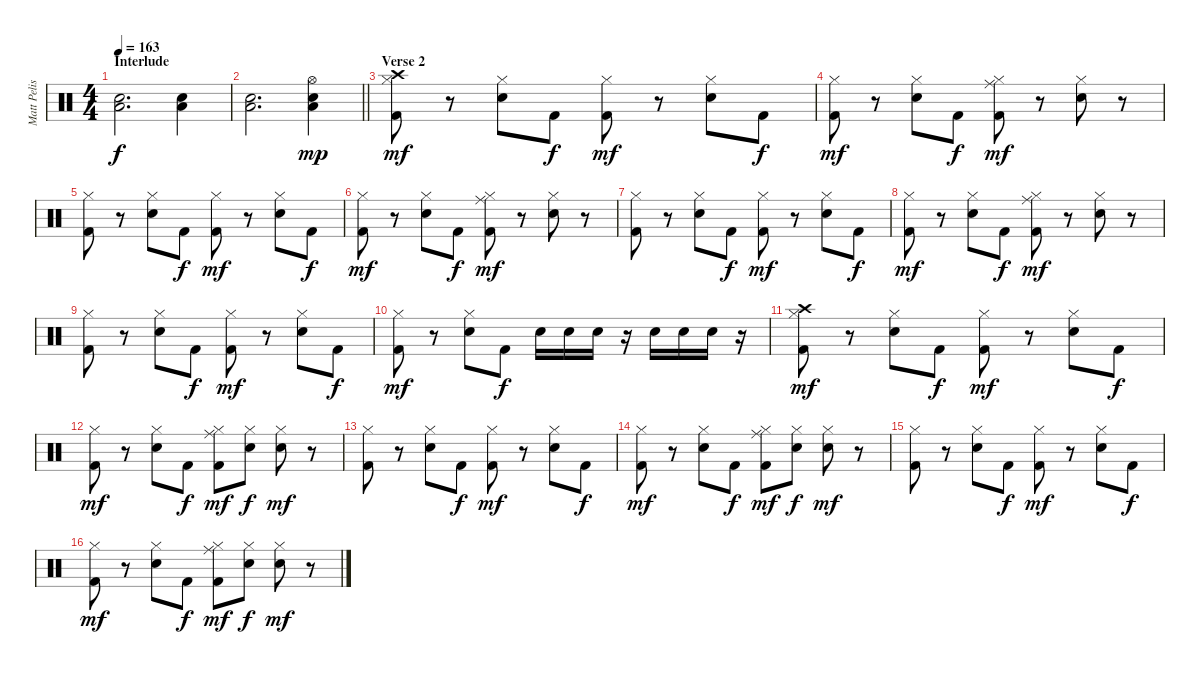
\track ("Matt Pelissier (Drums)" "Matt Pelis") {instrument percussion}
\staff {score}
\articulation defaults
\ts (4 4)
\section ("" "Interlude")
\tempo 163
\clef neutral
\ks c
("Low Tom (hit)" "Electric Snare (hit)").2{d dy f} ("Low Tom (hit)" "Electric Snare (hit)").4 |
\barLineRight lightlight
("Low Tom (hit)" "Electric Snare (hit)").2{d} ("Hi-Hat (open)" "Low Tom (hit)" "Electric Snare (hit)").4{dy mp} |
\section ("" "Verse 2")
("Crash high (hit)" "Hi-Hat (closed)" "Kick (hit) 2").8{dy mf} r.8 ("Hi-Hat (closed)" "Electric Snare (hit)").8 "Kick (hit) 2".8{dy f} ("Hi-Hat (closed)" "Kick (hit) 2").8{dy mf} r.8 ("Hi-Hat (closed)" "Electric Snare (hit)").8 "Kick (hit) 2".8{dy f} |
("Hi-Hat (closed)" "Kick (hit) 2").8{dy mf} r.8 ("Hi-Hat (closed)" "Electric Snare (hit)").8 "Kick (hit) 2".8{dy f} ("Ride (middle)" "Hi-Hat (closed)" "Kick (hit) 2").8{dy mf} r.8 ("Hi-Hat (closed)" "Electric Snare (hit)").8 r.8 |
("Hi-Hat (closed)" "Kick (hit) 2").8 r.8 ("Hi-Hat (closed)" "Electric Snare (hit)").8 "Kick (hit) 2".8{dy f} ("Hi-Hat (closed)" "Kick (hit) 2").8{dy mf} r.8 ("Hi-Hat (closed)" "Electric Snare (hit)").8 "Kick (hit) 2".8{dy f} |
("Hi-Hat (closed)" "Kick (hit) 2").8{dy mf} r.8 ("Hi-Hat (closed)" "Electric Snare (hit)").8 "Kick (hit) 2".8{dy f} ("Ride (middle)" "Hi-Hat (closed)" "Kick (hit) 2").8{dy mf} r.8 ("Hi-Hat (closed)" "Electric Snare (hit)").8 r.8 |
("Hi-Hat (closed)" "Kick (hit) 2").8 r.8 ("Hi-Hat (closed)" "Electric Snare (hit)").8 "Kick (hit) 2".8{dy f} ("Hi-Hat (closed)" "Kick (hit) 2").8{dy mf} r.8 ("Hi-Hat (closed)" "Electric Snare (hit)").8 "Kick (hit) 2".8{dy f} |
("Hi-Hat (closed)" "Kick (hit) 2").8{dy mf} r.8 ("Hi-Hat (closed)" "Electric Snare (hit)").8 "Kick (hit) 2".8{dy f} ("Ride (middle)" "Hi-Hat (closed)" "Kick (hit) 2").8{dy mf} r.8 ("Hi-Hat (closed)" "Electric Snare (hit)").8 r.8 |
("Hi-Hat (closed)" "Kick (hit) 2").8 r.8 ("Hi-Hat (closed)" "Electric Snare (hit)").8 "Kick (hit) 2".8{dy f} ("Hi-Hat (closed)" "Kick (hit) 2").8{dy mf} r.8 ("Hi-Hat (closed)" "Electric Snare (hit)").8 "Kick (hit) 2".8{dy f} |
("Hi-Hat (closed)" "Kick (hit) 2").8{dy mf} r.8 ("Hi-Hat (closed)" "Electric Snare (hit)").8 "Kick (hit) 2".8{dy f} "Electric Snare (hit)".16 "Electric Snare (hit)".16 "Electric Snare (hit)".16 r.16 "Electric Snare (hit)".16 "Electric Snare (hit)".16 "Electric Snare (hit)".16 r.16 |
("Crash high (hit)" "Hi-Hat (closed)" "Kick (hit) 2").8{dy mf} r.8 ("Hi-Hat (closed)" "Electric Snare (hit)").8 "Kick (hit) 2".8{dy f} ("Hi-Hat (closed)" "Kick (hit) 2").8{dy mf} r.8 ("Hi-Hat (closed)" "Electric Snare (hit)").8 "Kick (hit) 2".8{dy f} |
("Hi-Hat (closed)" "Kick (hit) 2").8{dy mf} r.8 ("Hi-Hat (closed)" "Electric Snare (hit)").8 "Kick (hit) 2".8{dy f} ("Ride (middle)" "Hi-Hat (closed)" "Kick (hit) 2").8{dy mf} ("Hi-Hat (closed)" "Electric Snare (hit)").8{dy f} ("Hi-Hat (closed)" "Electric Snare (hit)").8{dy mf} r.8 |
("Hi-Hat (closed)" "Kick (hit) 2").8 r.8 ("Hi-Hat (closed)" "Electric Snare (hit)").8 "Kick (hit) 2".8{dy f} ("Hi-Hat (closed)" "Kick (hit) 2").8{dy mf} r.8 ("Hi-Hat (closed)" "Electric Snare (hit)").8 "Kick (hit) 2".8{dy f} |
("Hi-Hat (closed)" "Kick (hit) 2").8{dy mf} r.8 ("Hi-Hat (closed)" "Electric Snare (hit)").8 "Kick (hit) 2".8{dy f} ("Ride (middle)" "Hi-Hat (closed)" "Kick (hit) 2").8{dy mf} ("Hi-Hat (closed)" "Electric Snare (hit)").8{dy f} ("Hi-Hat (closed)" "Electric Snare (hit)").8{dy mf} r.8 |
("Hi-Hat (closed)" "Kick (hit) 2").8 r.8 ("Hi-Hat (closed)" "Electric Snare (hit)").8 "Kick (hit) 2".8{dy f} ("Hi-Hat (closed)" "Kick (hit) 2").8{dy mf} r.8 ("Hi-Hat (closed)" "Electric Snare (hit)").8 "Kick (hit) 2".8{dy f} |
("Hi-Hat (closed)" "Kick (hit) 2").8{dy mf} r.8 ("Hi-Hat (closed)" "Electric Snare (hit)").8 "Kick (hit) 2".8{dy f} ("Ride (middle)" "Hi-Hat (closed)" "Kick (hit) 2").8{dy mf} ("Hi-Hat (closed)" "Electric Snare (hit)").8{dy f} ("Hi-Hat (closed)" "Electric Snare (hit)").8{dy mf} r.8
